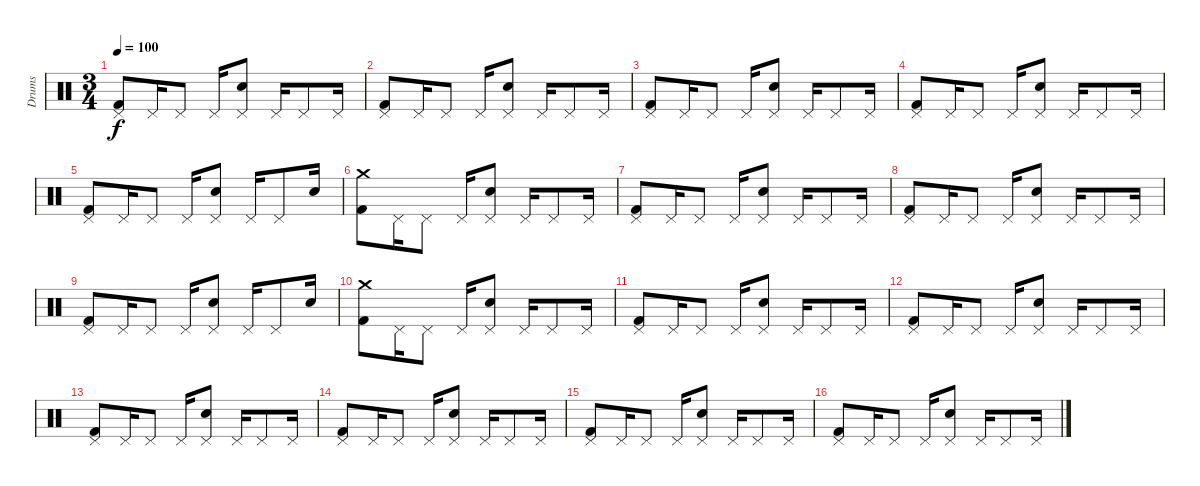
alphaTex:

\track ("Drums" "Drums") {instrument percussion}
\staff {score}
\articulation defaults
\ts (3 4)
\tempo 100
\clef neutral
\ks c
("Pedal Hi-Hat (hit)" "Kick (hit) 2").8{dy f} "Pedal Hi-Hat (hit)".16 "Pedal Hi-Hat (hit)".8 "Pedal Hi-Hat (hit)".16 ("Pedal Hi-Hat (hit)" "Snare (hit) 2").8 "Pedal Hi-Hat (hit)".16 "Pedal Hi-Hat (hit)".8 "Pedal Hi-Hat (hit)".16 |
("Pedal Hi-Hat (hit)" "Kick (hit) 2").8 "Pedal Hi-Hat (hit)".16 "Pedal Hi-Hat (hit)".8 "Pedal Hi-Hat (hit)".16 ("Pedal Hi-Hat (hit)" "Snare (hit) 2").8 "Pedal Hi-Hat (hit)".16 "Pedal Hi-Hat (hit)".8 "Pedal Hi-Hat (hit)".16 |
("Pedal Hi-Hat (hit)" "Kick (hit) 2").8 "Pedal Hi-Hat (hit)".16 "Pedal Hi-Hat (hit)".8 "Pedal Hi-Hat (hit)".16 ("Pedal Hi-Hat (hit)" "Snare (hit) 2").8 "Pedal Hi-Hat (hit)".16 "Pedal Hi-Hat (hit)".8 "Pedal Hi-Hat (hit)".16 |
("Pedal Hi-Hat (hit)" "Kick (hit) 2").8 "Pedal Hi-Hat (hit)".16 "Pedal Hi-Hat (hit)".8 "Pedal Hi-Hat (hit)".16 ("Pedal Hi-Hat (hit)" "Snare (hit) 2").8 "Pedal Hi-Hat (hit)".16 "Pedal Hi-Hat (hit)".8 "Pedal Hi-Hat (hit)".16 |
("Pedal Hi-Hat (hit)" "Kick (hit) 2").8 "Pedal Hi-Hat (hit)".16 "Pedal Hi-Hat (hit)".8 "Pedal Hi-Hat (hit)".16 ("Pedal Hi-Hat (hit)" "Snare (hit) 2").8 "Pedal Hi-Hat (hit)".16 "Pedal Hi-Hat (hit)".8 "Snare (hit) 2".16 |
("Crash medium (hit)" "Kick (hit) 2").8 "Pedal Hi-Hat (hit)".16 "Pedal Hi-Hat (hit)".8 "Pedal Hi-Hat (hit)".16 ("Pedal Hi-Hat (hit)" "Snare (hit) 2").8 "Pedal Hi-Hat (hit)".16 "Pedal Hi-Hat (hit)".8 "Pedal Hi-Hat (hit)".16 |
("Pedal Hi-Hat (hit)" "Kick (hit) 2").8 "Pedal Hi-Hat (hit)".16 "Pedal Hi-Hat (hit)".8 "Pedal Hi-Hat (hit)".16 ("Pedal Hi-Hat (hit)" "Snare (hit) 2").8 "Pedal Hi-Hat (hit)".16 "Pedal Hi-Hat (hit)".8 "Pedal Hi-Hat (hit)".16 |
("Pedal Hi-Hat (hit)" "Kick (hit) 2").8 "Pedal Hi-Hat (hit)".16 "Pedal Hi-Hat (hit)".8 "Pedal Hi-Hat (hit)".16 ("Pedal Hi-Hat (hit)" "Snare (hit) 2").8 "Pedal Hi-Hat (hit)".16 "Pedal Hi-Hat (hit)".8 "Pedal Hi-Hat (hit)".16 |
("Pedal Hi-Hat (hit)" "Kick (hit) 2").8 "Pedal Hi-Hat (hit)".16 "Pedal Hi-Hat (hit)".8 "Pedal Hi-Hat (hit)".16 ("Pedal Hi-Hat (hit)" "Snare (hit) 2").8 "Pedal Hi-Hat (hit)".16 "Pedal Hi-Hat (hit)".8 "Snare (hit) 2".16 |
("Crash medium (hit)" "Kick (hit) 2").8 "Pedal Hi-Hat (hit)".16 "Pedal Hi-Hat (hit)".8 "Pedal Hi-Hat (hit)".16 ("Pedal Hi-Hat (hit)" "Snare (hit) 2").8 "Pedal Hi-Hat (hit)".16 "Pedal Hi-Hat (hit)".8 "Pedal Hi-Hat (hit)".16 |
("Pedal Hi-Hat (hit)" "Kick (hit) 2").8 "Pedal Hi-Hat (hit)".16 "Pedal Hi-Hat (hit)".8 "Pedal Hi-Hat (hit)".16 ("Pedal Hi-Hat (hit)" "Snare (hit) 2").8 "Pedal Hi-Hat (hit)".16 "Pedal Hi-Hat (hit)".8 "Pedal Hi-Hat (hit)".16 |
("Pedal Hi-Hat (hit)" "Kick (hit) 2").8 "Pedal Hi-Hat (hit)".16 "Pedal Hi-Hat (hit)".8 "Pedal Hi-Hat (hit)".16 ("Pedal Hi-Hat (hit)" "Snare (hit) 2").8 "Pedal Hi-Hat (hit)".16 "Pedal Hi-Hat (hit)".8 "Pedal Hi-Hat (hit)".16 |
("Pedal Hi-Hat (hit)" "Kick (hit) 2").8 "Pedal Hi-Hat (hit)".16 "Pedal Hi-Hat (hit)".8 "Pedal Hi-Hat (hit)".16 ("Pedal Hi-Hat (hit)" "Snare (hit) 2").8 "Pedal Hi-Hat (hit)".16 "Pedal Hi-Hat (hit)".8 "Pedal Hi-Hat (hit)".16 |
("Pedal Hi-Hat (hit)" "Kick (hit) 2").8 "Pedal Hi-Hat (hit)".16 "Pedal Hi-Hat (hit)".8 "Pedal Hi-Hat (hit)".16 ("Pedal Hi-Hat (hit)" "Snare (hit) 2").8 "Pedal Hi-Hat (hit)".16 "Pedal Hi-Hat (hit)".8 "Pedal Hi-Hat (hit)".16 |
("Pedal Hi-Hat (hit)" "Kick (hit) 2").8 "Pedal Hi-Hat (hit)".16 "Pedal Hi-Hat (hit)".8 "Pedal Hi-Hat (hit)".16 ("Pedal Hi-Hat (hit)" "Snare (hit) 2").8 "Pedal Hi-Hat (hit)".16 "Pedal Hi-Hat (hit)".8 "Pedal Hi-Hat (hit)".16 |
("Pedal Hi-Hat (hit)" "Kick (hit) 2").8 "Pedal Hi-Hat (hit)".16 "Pedal Hi-Hat (hit)".8 "Pedal Hi-Hat (hit)".16 ("Pedal Hi-Hat (hit)" "Snare (hit) 2").8 "Pedal Hi-Hat (hit)".16 "Pedal Hi-Hat (hit)".8 "Pedal Hi-Hat (hit)".16
